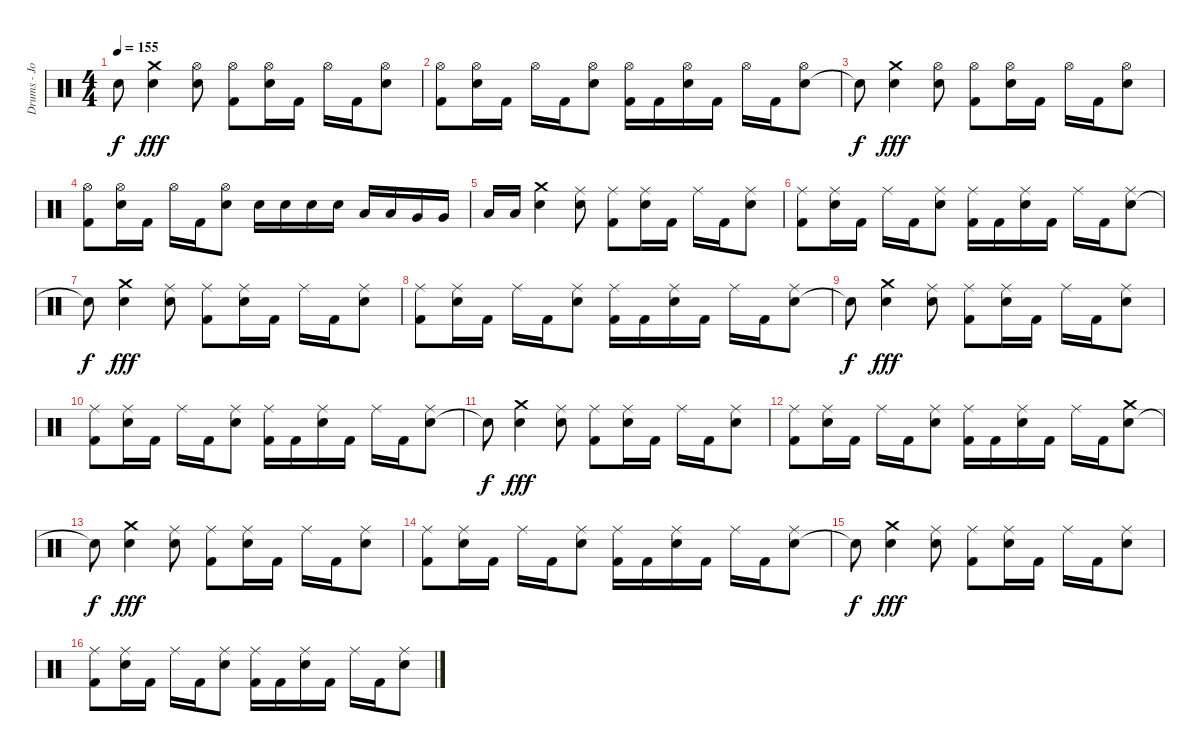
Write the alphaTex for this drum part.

\track ("Drums - Jord" "Drums - Jo") {instrument percussion}
\staff {score}
\articulation defaults
\ts (4 4)
\tempo 155
\clef neutral
\ks c "Snare (hit)"{t}.8{dy f}
("Electric Snare (hit)" "Crash medium (hit)").4{dy fff} ("Electric Snare (hit)" "Hi-Hat (open)").8 ("Kick (hit) 2" "Hi-Hat (open)").8 ("Electric Snare (hit)" "Hi-Hat (open)").16 "Kick (hit) 2".16 "Hi-Hat (open)".16 "Kick (hit) 2".16 ("Electric Snare (hit)" "Hi-Hat (open)").8 |
("Kick (hit) 2" "Hi-Hat (open)").8 ("Electric Snare (hit)" "Hi-Hat (open)").16 "Kick (hit) 2".16 "Hi-Hat (open)".16 "Kick (hit) 2".16 ("Electric Snare (hit)" "Hi-Hat (open)").8 ("Kick (hit) 2" "Hi-Hat (open)").16 "Kick (hit) 2".16 ("Electric Snare (hit)" "Hi-Hat (open)").16 "Kick (hit) 2".16 "Hi-Hat (open)".16 "Kick (hit) 2".16 ("Electric Snare (hit)" "Hi-Hat (open)").8 |
"Snare (hit)"{t}.8{dy f} ("Electric Snare (hit)" "Crash medium (hit)").4{dy fff} ("Electric Snare (hit)" "Hi-Hat (open)").8 ("Kick (hit) 2" "Hi-Hat (open)").8 ("Electric Snare (hit)" "Hi-Hat (open)").16 "Kick (hit) 2".16 "Hi-Hat (open)".16 "Kick (hit) 2".16 ("Electric Snare (hit)" "Hi-Hat (open)").8 |
("Kick (hit) 2" "Hi-Hat (open)").8 ("Electric Snare (hit)" "Hi-Hat (open)").16 "Kick (hit) 2".16 "Hi-Hat (open)".16 "Kick (hit) 2".16 ("Electric Snare (hit)" "Hi-Hat (open)").8 "Electric Snare (hit)".16 "Electric Snare (hit)".16 "Electric Snare (hit)".16 "Electric Snare (hit)".16 "Low Tom (hit)".16 "Low Tom (hit)".16 "Very Low Tom (hit)".16 "Very Low Tom (hit)".16 |
"Low Tom (hit)".16 "Low Tom (hit)".16 ("Electric Snare (hit)" "Crash medium (hit)").4 ("Electric Snare (hit)" "Ride (middle)").8 ("Kick (hit) 2" "Ride (middle)").8 ("Electric Snare (hit)" "Ride (middle)").16 "Kick (hit) 2".16 "Ride (middle)".16 "Kick (hit) 2".16 ("Electric Snare (hit)" "Ride (middle)").8 |
("Kick (hit) 2" "Ride (middle)").8 ("Electric Snare (hit)" "Ride (middle)").16 "Kick (hit) 2".16 "Ride (middle)".16 "Kick (hit) 2".16 ("Electric Snare (hit)" "Ride (middle)").8 ("Kick (hit) 2" "Ride (middle)").16 "Kick (hit) 2".16 ("Electric Snare (hit)" "Ride (middle)").16 "Kick (hit) 2".16 "Ride (middle)".16 "Kick (hit) 2".16 ("Electric Snare (hit)" "Ride (middle)").8 |
"Snare (hit)"{t}.8{dy f} ("Electric Snare (hit)" "Crash medium (hit)").4{dy fff} ("Electric Snare (hit)" "Ride (middle)").8 ("Kick (hit) 2" "Ride (middle)").8 ("Electric Snare (hit)" "Ride (middle)").16 "Kick (hit) 2".16 "Ride (middle)".16 "Kick (hit) 2".16 ("Electric Snare (hit)" "Ride (middle)").8 |
("Kick (hit) 2" "Ride (middle)").8 ("Electric Snare (hit)" "Ride (middle)").16 "Kick (hit) 2".16 "Ride (middle)".16 "Kick (hit) 2".16 ("Electric Snare (hit)" "Ride (middle)").8 ("Kick (hit) 2" "Ride (middle)").16 "Kick (hit) 2".16 ("Electric Snare (hit)" "Ride (middle)").16 "Kick (hit) 2".16 "Ride (middle)".16 "Kick (hit) 2".16 ("Electric Snare (hit)" "Ride (middle)").8 |
"Snare (hit)"{t}.8{dy f} ("Electric Snare (hit)" "Crash medium (hit)").4{dy fff} ("Electric Snare (hit)" "Ride (middle)").8 ("Kick (hit) 2" "Ride (middle)").8 ("Electric Snare (hit)" "Ride (middle)").16 "Kick (hit) 2".16 "Ride (middle)".16 "Kick (hit) 2".16 ("Electric Snare (hit)" "Ride (middle)").8 |
("Kick (hit) 2" "Ride (middle)").8 ("Electric Snare (hit)" "Ride (middle)").16 "Kick (hit) 2".16 "Ride (middle)".16 "Kick (hit) 2".16 ("Electric Snare (hit)" "Ride (middle)").8 ("Kick (hit) 2" "Ride (middle)").16 "Kick (hit) 2".16 ("Electric Snare (hit)" "Ride (middle)").16 "Kick (hit) 2".16 "Ride (middle)".16 "Kick (hit) 2".16 ("Electric Snare (hit)" "Ride (middle)").8 |
"Snare (hit)"{t}.8{dy f} ("Electric Snare (hit)" "Crash medium (hit)").4{dy fff} ("Electric Snare (hit)" "Ride (middle)").8 ("Kick (hit) 2" "Ride (middle)").8 ("Electric Snare (hit)" "Ride (middle)").16 "Kick (hit) 2".16 "Ride (middle)".16 "Kick (hit) 2".16 ("Electric Snare (hit)" "Ride (middle)").8 |
("Kick (hit) 2" "Ride (middle)").8 ("Electric Snare (hit)" "Ride (middle)").16 "Kick (hit) 2".16 "Ride (middle)".16 "Kick (hit) 2".16 ("Electric Snare (hit)" "Ride (middle)").8 ("Kick (hit) 2" "Ride (middle)").16 "Kick (hit) 2".16 ("Electric Snare (hit)" "Ride (middle)").16 "Kick (hit) 2".16 "Ride (middle)".16 "Kick (hit) 2".16 ("Electric Snare (hit)" "Crash medium (hit)").8 |
"Snare (hit)"{t}.8{dy f} ("Electric Snare (hit)" "Crash medium (hit)").4{dy fff} ("Electric Snare (hit)" "Ride (middle)").8 ("Kick (hit) 2" "Ride (middle)").8 ("Electric Snare (hit)" "Ride (middle)").16 "Kick (hit) 2".16 "Ride (middle)".16 "Kick (hit) 2".16 ("Electric Snare (hit)" "Ride (middle)").8 |
("Kick (hit) 2" "Ride (middle)").8 ("Electric Snare (hit)" "Ride (middle)").16 "Kick (hit) 2".16 "Ride (middle)".16 "Kick (hit) 2".16 ("Electric Snare (hit)" "Ride (middle)").8 ("Kick (hit) 2" "Ride (middle)").16 "Kick (hit) 2".16 ("Electric Snare (hit)" "Ride (middle)").16 "Kick (hit) 2".16 "Ride (middle)".16 "Kick (hit) 2".16 ("Electric Snare (hit)" "Ride (middle)").8 |
"Snare (hit)"{t}.8{dy f} ("Electric Snare (hit)" "Crash medium (hit)").4{dy fff} ("Electric Snare (hit)" "Ride (middle)").8 ("Kick (hit) 2" "Ride (middle)").8 ("Electric Snare (hit)" "Ride (middle)").16 "Kick (hit) 2".16 "Ride (middle)".16 "Kick (hit) 2".16 ("Electric Snare (hit)" "Ride (middle)").8 |
("Kick (hit) 2" "Ride (middle)").8 ("Electric Snare (hit)" "Ride (middle)").16 "Kick (hit) 2".16 "Ride (middle)".16 "Kick (hit) 2".16 ("Electric Snare (hit)" "Ride (middle)").8 ("Kick (hit) 2" "Ride (middle)").16 "Kick (hit) 2".16 ("Electric Snare (hit)" "Ride (middle)").16 "Kick (hit) 2".16 "Ride (middle)".16 "Kick (hit) 2".16 ("Electric Snare (hit)" "Ride (middle)").8
